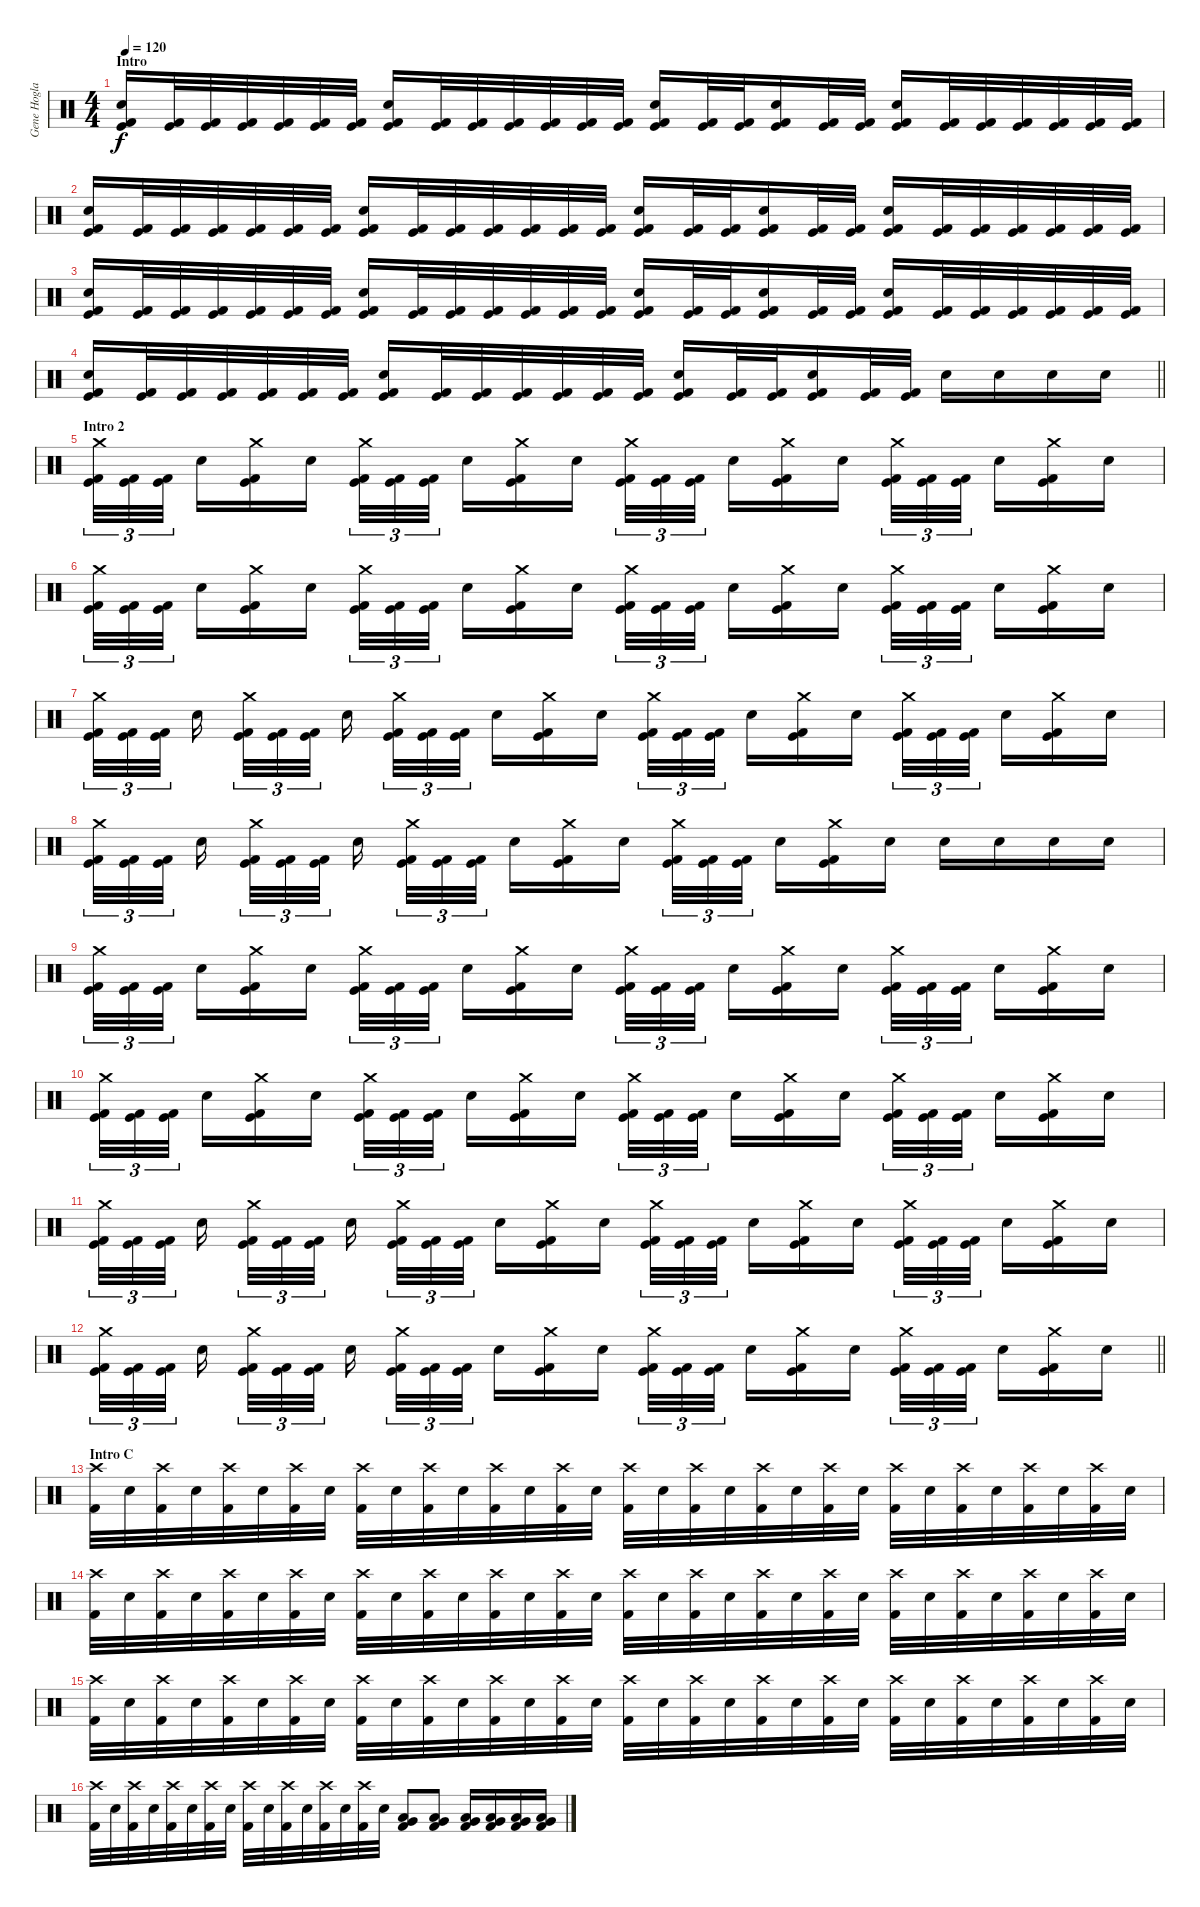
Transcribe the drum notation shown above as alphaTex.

\track ("Gene Hogland" "Gene Hogla") {instrument percussion}
\staff {score}
\articulation defaults
\ts (4 4)
\section ("" "Intro")
\tempo 120
\clef neutral
\ks c
("Electric Snare (hit)" "Kick (hit)" "Kick (hit) 2").16{dy f} ("Kick (hit)" "Kick (hit) 2").32 ("Kick (hit)" "Kick (hit) 2").32 ("Kick (hit)" "Kick (hit) 2").32 ("Kick (hit)" "Kick (hit) 2").32 ("Kick (hit)" "Kick (hit) 2").32 ("Kick (hit)" "Kick (hit) 2").32 ("Electric Snare (hit)" "Kick (hit)" "Kick (hit) 2").16 ("Kick (hit)" "Kick (hit) 2").32 ("Kick (hit)" "Kick (hit) 2").32 ("Kick (hit)" "Kick (hit) 2").32 ("Kick (hit)" "Kick (hit) 2").32 ("Kick (hit)" "Kick (hit) 2").32 ("Kick (hit)" "Kick (hit) 2").32 ("Electric Snare (hit)" "Kick (hit)" "Kick (hit) 2").16 ("Kick (hit)" "Kick (hit) 2").32 ("Kick (hit)" "Kick (hit) 2").32 ("Electric Snare (hit)" "Kick (hit)" "Kick (hit) 2").16 ("Kick (hit)" "Kick (hit) 2").32 ("Kick (hit)" "Kick (hit) 2").32 ("Electric Snare (hit)" "Kick (hit)" "Kick (hit) 2").16 ("Kick (hit)" "Kick (hit) 2").32 ("Kick (hit)" "Kick (hit) 2").32 ("Kick (hit)" "Kick (hit) 2").32 ("Kick (hit)" "Kick (hit) 2").32 ("Kick (hit)" "Kick (hit) 2").32 ("Kick (hit)" "Kick (hit) 2").32 |
("Electric Snare (hit)" "Kick (hit)" "Kick (hit) 2").16 ("Kick (hit)" "Kick (hit) 2").32 ("Kick (hit)" "Kick (hit) 2").32 ("Kick (hit)" "Kick (hit) 2").32 ("Kick (hit)" "Kick (hit) 2").32 ("Kick (hit)" "Kick (hit) 2").32 ("Kick (hit)" "Kick (hit) 2").32 ("Electric Snare (hit)" "Kick (hit)" "Kick (hit) 2").16 ("Kick (hit)" "Kick (hit) 2").32 ("Kick (hit)" "Kick (hit) 2").32 ("Kick (hit)" "Kick (hit) 2").32 ("Kick (hit)" "Kick (hit) 2").32 ("Kick (hit)" "Kick (hit) 2").32 ("Kick (hit)" "Kick (hit) 2").32 ("Electric Snare (hit)" "Kick (hit)" "Kick (hit) 2").16 ("Kick (hit)" "Kick (hit) 2").32 ("Kick (hit)" "Kick (hit) 2").32 ("Electric Snare (hit)" "Kick (hit)" "Kick (hit) 2").16 ("Kick (hit)" "Kick (hit) 2").32 ("Kick (hit)" "Kick (hit) 2").32 ("Electric Snare (hit)" "Kick (hit)" "Kick (hit) 2").16 ("Kick (hit)" "Kick (hit) 2").32 ("Kick (hit)" "Kick (hit) 2").32 ("Kick (hit)" "Kick (hit) 2").32 ("Kick (hit)" "Kick (hit) 2").32 ("Kick (hit)" "Kick (hit) 2").32 ("Kick (hit)" "Kick (hit) 2").32 |
("Electric Snare (hit)" "Kick (hit)" "Kick (hit) 2").16 ("Kick (hit)" "Kick (hit) 2").32 ("Kick (hit)" "Kick (hit) 2").32 ("Kick (hit)" "Kick (hit) 2").32 ("Kick (hit)" "Kick (hit) 2").32 ("Kick (hit)" "Kick (hit) 2").32 ("Kick (hit)" "Kick (hit) 2").32 ("Electric Snare (hit)" "Kick (hit)" "Kick (hit) 2").16 ("Kick (hit)" "Kick (hit) 2").32 ("Kick (hit)" "Kick (hit) 2").32 ("Kick (hit)" "Kick (hit) 2").32 ("Kick (hit)" "Kick (hit) 2").32 ("Kick (hit)" "Kick (hit) 2").32 ("Kick (hit)" "Kick (hit) 2").32 ("Electric Snare (hit)" "Kick (hit)" "Kick (hit) 2").16 ("Kick (hit)" "Kick (hit) 2").32 ("Kick (hit)" "Kick (hit) 2").32 ("Electric Snare (hit)" "Kick (hit)" "Kick (hit) 2").16 ("Kick (hit)" "Kick (hit) 2").32 ("Kick (hit)" "Kick (hit) 2").32 ("Electric Snare (hit)" "Kick (hit)" "Kick (hit) 2").16 ("Kick (hit)" "Kick (hit) 2").32 ("Kick (hit)" "Kick (hit) 2").32 ("Kick (hit)" "Kick (hit) 2").32 ("Kick (hit)" "Kick (hit) 2").32 ("Kick (hit)" "Kick (hit) 2").32 ("Kick (hit)" "Kick (hit) 2").32 |
\barLineRight lightlight
("Electric Snare (hit)" "Kick (hit)" "Kick (hit) 2").16 ("Kick (hit)" "Kick (hit) 2").32 ("Kick (hit)" "Kick (hit) 2").32 ("Kick (hit)" "Kick (hit) 2").32 ("Kick (hit)" "Kick (hit) 2").32 ("Kick (hit)" "Kick (hit) 2").32 ("Kick (hit)" "Kick (hit) 2").32 ("Electric Snare (hit)" "Kick (hit)" "Kick (hit) 2").16 ("Kick (hit)" "Kick (hit) 2").32 ("Kick (hit)" "Kick (hit) 2").32 ("Kick (hit)" "Kick (hit) 2").32 ("Kick (hit)" "Kick (hit) 2").32 ("Kick (hit)" "Kick (hit) 2").32 ("Kick (hit)" "Kick (hit) 2").32 ("Electric Snare (hit)" "Kick (hit)" "Kick (hit) 2").16 ("Kick (hit)" "Kick (hit) 2").32 ("Kick (hit)" "Kick (hit) 2").32 ("Electric Snare (hit)" "Kick (hit)" "Kick (hit) 2").16 ("Kick (hit)" "Kick (hit) 2").32 ("Kick (hit)" "Kick (hit) 2").32 "Electric Snare (hit)".16 "Electric Snare (hit)".16 "Electric Snare (hit)".16 "Electric Snare (hit)".16 |
\section ("" "Intro 2")
("Crash medium (hit)" "Kick (hit)" "Kick (hit) 2").32{tu (3 2)} ("Kick (hit)" "Kick (hit) 2").32{tu (3 2)} ("Kick (hit)" "Kick (hit) 2").32{tu (3 2)} "Electric Snare (hit)".16 ("Crash medium (hit)" "Kick (hit)" "Kick (hit) 2").16 "Electric Snare (hit)".16 ("Crash medium (hit)" "Kick (hit)" "Kick (hit) 2").32{tu (3 2)} ("Kick (hit)" "Kick (hit) 2").32{tu (3 2)} ("Kick (hit)" "Kick (hit) 2").32{tu (3 2)} "Electric Snare (hit)".16 ("Crash medium (hit)" "Kick (hit)" "Kick (hit) 2").16 "Electric Snare (hit)".16 ("Crash medium (hit)" "Kick (hit)" "Kick (hit) 2").32{tu (3 2)} ("Kick (hit)" "Kick (hit) 2").32{tu (3 2)} ("Kick (hit)" "Kick (hit) 2").32{tu (3 2)} "Electric Snare (hit)".16 ("Crash medium (hit)" "Kick (hit)" "Kick (hit) 2").16 "Electric Snare (hit)".16 ("Crash medium (hit)" "Kick (hit)" "Kick (hit) 2").32{tu (3 2)} ("Kick (hit)" "Kick (hit) 2").32{tu (3 2)} ("Kick (hit)" "Kick (hit) 2").32{tu (3 2)} "Electric Snare (hit)".16 ("Crash medium (hit)" "Kick (hit)" "Kick (hit) 2").16 "Electric Snare (hit)".16 |
("Crash medium (hit)" "Kick (hit)" "Kick (hit) 2").32{tu (3 2)} ("Kick (hit)" "Kick (hit) 2").32{tu (3 2)} ("Kick (hit)" "Kick (hit) 2").32{tu (3 2)} "Electric Snare (hit)".16 ("Crash medium (hit)" "Kick (hit)" "Kick (hit) 2").16 "Electric Snare (hit)".16 ("Crash medium (hit)" "Kick (hit)" "Kick (hit) 2").32{tu (3 2)} ("Kick (hit)" "Kick (hit) 2").32{tu (3 2)} ("Kick (hit)" "Kick (hit) 2").32{tu (3 2)} "Electric Snare (hit)".16 ("Crash medium (hit)" "Kick (hit)" "Kick (hit) 2").16 "Electric Snare (hit)".16 ("Crash medium (hit)" "Kick (hit)" "Kick (hit) 2").32{tu (3 2)} ("Kick (hit)" "Kick (hit) 2").32{tu (3 2)} ("Kick (hit)" "Kick (hit) 2").32{tu (3 2)} "Electric Snare (hit)".16 ("Crash medium (hit)" "Kick (hit)" "Kick (hit) 2").16 "Electric Snare (hit)".16 ("Crash medium (hit)" "Kick (hit)" "Kick (hit) 2").32{tu (3 2)} ("Kick (hit)" "Kick (hit) 2").32{tu (3 2)} ("Kick (hit)" "Kick (hit) 2").32{tu (3 2)} "Electric Snare (hit)".16 ("Crash medium (hit)" "Kick (hit)" "Kick (hit) 2").16 "Electric Snare (hit)".16 |
("Crash medium (hit)" "Kick (hit)" "Kick (hit) 2").32{tu (3 2)} ("Kick (hit)" "Kick (hit) 2").32{tu (3 2)} ("Kick (hit)" "Kick (hit) 2").32{tu (3 2)} "Electric Snare (hit)".16 ("Crash medium (hit)" "Kick (hit)" "Kick (hit) 2").32{tu (3 2)} ("Kick (hit)" "Kick (hit) 2").32{tu (3 2)} ("Kick (hit)" "Kick (hit) 2").32{tu (3 2)} "Electric Snare (hit)".16 ("Crash medium (hit)" "Kick (hit)" "Kick (hit) 2").32{tu (3 2)} ("Kick (hit)" "Kick (hit) 2").32{tu (3 2)} ("Kick (hit)" "Kick (hit) 2").32{tu (3 2)} "Electric Snare (hit)".16 ("Crash medium (hit)" "Kick (hit)" "Kick (hit) 2").16 "Electric Snare (hit)".16 ("Crash medium (hit)" "Kick (hit)" "Kick (hit) 2").32{tu (3 2)} ("Kick (hit)" "Kick (hit) 2").32{tu (3 2)} ("Kick (hit)" "Kick (hit) 2").32{tu (3 2)} "Electric Snare (hit)".16 ("Crash medium (hit)" "Kick (hit)" "Kick (hit) 2").16 "Electric Snare (hit)".16 ("Crash medium (hit)" "Kick (hit)" "Kick (hit) 2").32{tu (3 2)} ("Kick (hit)" "Kick (hit) 2").32{tu (3 2)} ("Kick (hit)" "Kick (hit) 2").32{tu (3 2)} "Electric Snare (hit)".16 ("Crash medium (hit)" "Kick (hit)" "Kick (hit) 2").16 "Electric Snare (hit)".16 |
("Crash medium (hit)" "Kick (hit)" "Kick (hit) 2").32{tu (3 2)} ("Kick (hit)" "Kick (hit) 2").32{tu (3 2)} ("Kick (hit)" "Kick (hit) 2").32{tu (3 2)} "Electric Snare (hit)".16 ("Crash medium (hit)" "Kick (hit)" "Kick (hit) 2").32{tu (3 2)} ("Kick (hit)" "Kick (hit) 2").32{tu (3 2)} ("Kick (hit)" "Kick (hit) 2").32{tu (3 2)} "Electric Snare (hit)".16 ("Crash medium (hit)" "Kick (hit)" "Kick (hit) 2").32{tu (3 2)} ("Kick (hit)" "Kick (hit) 2").32{tu (3 2)} ("Kick (hit)" "Kick (hit) 2").32{tu (3 2)} "Electric Snare (hit)".16 ("Crash medium (hit)" "Kick (hit)" "Kick (hit) 2").16 "Electric Snare (hit)".16 ("Crash medium (hit)" "Kick (hit)" "Kick (hit) 2").32{tu (3 2)} ("Kick (hit)" "Kick (hit) 2").32{tu (3 2)} ("Kick (hit)" "Kick (hit) 2").32{tu (3 2)} "Electric Snare (hit)".16 ("Crash medium (hit)" "Kick (hit)" "Kick (hit) 2").16 "Electric Snare (hit)".16 "Electric Snare (hit)".16 "Electric Snare (hit)".16 "Electric Snare (hit)".16 "Electric Snare (hit)".16 |
("Crash medium (hit)" "Kick (hit)" "Kick (hit) 2").32{tu (3 2)} ("Kick (hit)" "Kick (hit) 2").32{tu (3 2)} ("Kick (hit)" "Kick (hit) 2").32{tu (3 2)} "Electric Snare (hit)".16 ("Crash medium (hit)" "Kick (hit)" "Kick (hit) 2").16 "Electric Snare (hit)".16 ("Crash medium (hit)" "Kick (hit)" "Kick (hit) 2").32{tu (3 2)} ("Kick (hit)" "Kick (hit) 2").32{tu (3 2)} ("Kick (hit)" "Kick (hit) 2").32{tu (3 2)} "Electric Snare (hit)".16 ("Crash medium (hit)" "Kick (hit)" "Kick (hit) 2").16 "Electric Snare (hit)".16 ("Crash medium (hit)" "Kick (hit)" "Kick (hit) 2").32{tu (3 2)} ("Kick (hit)" "Kick (hit) 2").32{tu (3 2)} ("Kick (hit)" "Kick (hit) 2").32{tu (3 2)} "Electric Snare (hit)".16 ("Crash medium (hit)" "Kick (hit)" "Kick (hit) 2").16 "Electric Snare (hit)".16 ("Crash medium (hit)" "Kick (hit)" "Kick (hit) 2").32{tu (3 2)} ("Kick (hit)" "Kick (hit) 2").32{tu (3 2)} ("Kick (hit)" "Kick (hit) 2").32{tu (3 2)} "Electric Snare (hit)".16 ("Crash medium (hit)" "Kick (hit)" "Kick (hit) 2").16 "Electric Snare (hit)".16 |
("Crash medium (hit)" "Kick (hit)" "Kick (hit) 2").32{tu (3 2)} ("Kick (hit)" "Kick (hit) 2").32{tu (3 2)} ("Kick (hit)" "Kick (hit) 2").32{tu (3 2)} "Electric Snare (hit)".16 ("Crash medium (hit)" "Kick (hit)" "Kick (hit) 2").16 "Electric Snare (hit)".16 ("Crash medium (hit)" "Kick (hit)" "Kick (hit) 2").32{tu (3 2)} ("Kick (hit)" "Kick (hit) 2").32{tu (3 2)} ("Kick (hit)" "Kick (hit) 2").32{tu (3 2)} "Electric Snare (hit)".16 ("Crash medium (hit)" "Kick (hit)" "Kick (hit) 2").16 "Electric Snare (hit)".16 ("Crash medium (hit)" "Kick (hit)" "Kick (hit) 2").32{tu (3 2)} ("Kick (hit)" "Kick (hit) 2").32{tu (3 2)} ("Kick (hit)" "Kick (hit) 2").32{tu (3 2)} "Electric Snare (hit)".16 ("Crash medium (hit)" "Kick (hit)" "Kick (hit) 2").16 "Electric Snare (hit)".16 ("Crash medium (hit)" "Kick (hit)" "Kick (hit) 2").32{tu (3 2)} ("Kick (hit)" "Kick (hit) 2").32{tu (3 2)} ("Kick (hit)" "Kick (hit) 2").32{tu (3 2)} "Electric Snare (hit)".16 ("Crash medium (hit)" "Kick (hit)" "Kick (hit) 2").16 "Electric Snare (hit)".16 |
("Crash medium (hit)" "Kick (hit)" "Kick (hit) 2").32{tu (3 2)} ("Kick (hit)" "Kick (hit) 2").32{tu (3 2)} ("Kick (hit)" "Kick (hit) 2").32{tu (3 2)} "Electric Snare (hit)".16 ("Crash medium (hit)" "Kick (hit)" "Kick (hit) 2").32{tu (3 2)} ("Kick (hit)" "Kick (hit) 2").32{tu (3 2)} ("Kick (hit)" "Kick (hit) 2").32{tu (3 2)} "Electric Snare (hit)".16 ("Crash medium (hit)" "Kick (hit)" "Kick (hit) 2").32{tu (3 2)} ("Kick (hit)" "Kick (hit) 2").32{tu (3 2)} ("Kick (hit)" "Kick (hit) 2").32{tu (3 2)} "Electric Snare (hit)".16 ("Crash medium (hit)" "Kick (hit)" "Kick (hit) 2").16 "Electric Snare (hit)".16 ("Crash medium (hit)" "Kick (hit)" "Kick (hit) 2").32{tu (3 2)} ("Kick (hit)" "Kick (hit) 2").32{tu (3 2)} ("Kick (hit)" "Kick (hit) 2").32{tu (3 2)} "Electric Snare (hit)".16 ("Crash medium (hit)" "Kick (hit)" "Kick (hit) 2").16 "Electric Snare (hit)".16 ("Crash medium (hit)" "Kick (hit)" "Kick (hit) 2").32{tu (3 2)} ("Kick (hit)" "Kick (hit) 2").32{tu (3 2)} ("Kick (hit)" "Kick (hit) 2").32{tu (3 2)} "Electric Snare (hit)".16 ("Crash medium (hit)" "Kick (hit)" "Kick (hit) 2").16 "Electric Snare (hit)".16 |
\barLineRight lightlight
("Crash medium (hit)" "Kick (hit)" "Kick (hit) 2").32{tu (3 2)} ("Kick (hit)" "Kick (hit) 2").32{tu (3 2)} ("Kick (hit)" "Kick (hit) 2").32{tu (3 2)} "Electric Snare (hit)".16 ("Crash medium (hit)" "Kick (hit)" "Kick (hit) 2").32{tu (3 2)} ("Kick (hit)" "Kick (hit) 2").32{tu (3 2)} ("Kick (hit)" "Kick (hit) 2").32{tu (3 2)} "Electric Snare (hit)".16 ("Crash medium (hit)" "Kick (hit)" "Kick (hit) 2").32{tu (3 2)} ("Kick (hit)" "Kick (hit) 2").32{tu (3 2)} ("Kick (hit)" "Kick (hit) 2").32{tu (3 2)} "Electric Snare (hit)".16 ("Crash medium (hit)" "Kick (hit)" "Kick (hit) 2").16 "Electric Snare (hit)".16 ("Crash medium (hit)" "Kick (hit)" "Kick (hit) 2").32{tu (3 2)} ("Kick (hit)" "Kick (hit) 2").32{tu (3 2)} ("Kick (hit)" "Kick (hit) 2").32{tu (3 2)} "Electric Snare (hit)".16 ("Crash medium (hit)" "Kick (hit)" "Kick (hit) 2").16 "Electric Snare (hit)".16 ("Crash medium (hit)" "Kick (hit)" "Kick (hit) 2").32{tu (3 2)} ("Kick (hit)" "Kick (hit) 2").32{tu (3 2)} ("Kick (hit)" "Kick (hit) 2").32{tu (3 2)} "Electric Snare (hit)".16 ("Crash medium (hit)" "Kick (hit)" "Kick (hit) 2").16 "Electric Snare (hit)".16 |
\section ("" "Intro C")
("Crash high (hit)" "Kick (hit) 2").32 "Electric Snare (hit)".32 ("Crash high (hit)" "Kick (hit) 2").32 "Electric Snare (hit)".32 ("Crash high (hit)" "Kick (hit) 2").32 "Electric Snare (hit)".32 ("Crash high (hit)" "Kick (hit) 2").32 "Electric Snare (hit)".32 ("Crash high (hit)" "Kick (hit) 2").32 "Electric Snare (hit)".32 ("Crash high (hit)" "Kick (hit) 2").32 "Electric Snare (hit)".32 ("Crash high (hit)" "Kick (hit) 2").32 "Electric Snare (hit)".32 ("Crash high (hit)" "Kick (hit) 2").32 "Electric Snare (hit)".32 ("Crash high (hit)" "Kick (hit) 2").32 "Electric Snare (hit)".32 ("Crash high (hit)" "Kick (hit) 2").32 "Electric Snare (hit)".32 ("Crash high (hit)" "Kick (hit) 2").32 "Electric Snare (hit)".32 ("Crash high (hit)" "Kick (hit) 2").32 "Electric Snare (hit)".32 ("Crash high (hit)" "Kick (hit) 2").32 "Electric Snare (hit)".32 ("Crash high (hit)" "Kick (hit) 2").32 "Electric Snare (hit)".32 ("Crash high (hit)" "Kick (hit) 2").32 "Electric Snare (hit)".32 ("Crash high (hit)" "Kick (hit) 2").32 "Electric Snare (hit)".32 |
("Crash high (hit)" "Kick (hit) 2").32 "Electric Snare (hit)".32 ("Crash high (hit)" "Kick (hit) 2").32 "Electric Snare (hit)".32 ("Crash high (hit)" "Kick (hit) 2").32 "Electric Snare (hit)".32 ("Crash high (hit)" "Kick (hit) 2").32 "Electric Snare (hit)".32 ("Crash high (hit)" "Kick (hit) 2").32 "Electric Snare (hit)".32 ("Crash high (hit)" "Kick (hit) 2").32 "Electric Snare (hit)".32 ("Crash high (hit)" "Kick (hit) 2").32 "Electric Snare (hit)".32 ("Crash high (hit)" "Kick (hit) 2").32 "Electric Snare (hit)".32 ("Crash high (hit)" "Kick (hit) 2").32 "Electric Snare (hit)".32 ("Crash high (hit)" "Kick (hit) 2").32 "Electric Snare (hit)".32 ("Crash high (hit)" "Kick (hit) 2").32 "Electric Snare (hit)".32 ("Crash high (hit)" "Kick (hit) 2").32 "Electric Snare (hit)".32 ("Crash high (hit)" "Kick (hit) 2").32 "Electric Snare (hit)".32 ("Crash high (hit)" "Kick (hit) 2").32 "Electric Snare (hit)".32 ("Crash high (hit)" "Kick (hit) 2").32 "Electric Snare (hit)".32 ("Crash high (hit)" "Kick (hit) 2").32 "Electric Snare (hit)".32 |
("Crash high (hit)" "Kick (hit) 2").32 "Electric Snare (hit)".32 ("Crash high (hit)" "Kick (hit) 2").32 "Electric Snare (hit)".32 ("Crash high (hit)" "Kick (hit) 2").32 "Electric Snare (hit)".32 ("Crash high (hit)" "Kick (hit) 2").32 "Electric Snare (hit)".32 ("Crash high (hit)" "Kick (hit) 2").32 "Electric Snare (hit)".32 ("Crash high (hit)" "Kick (hit) 2").32 "Electric Snare (hit)".32 ("Crash high (hit)" "Kick (hit) 2").32 "Electric Snare (hit)".32 ("Crash high (hit)" "Kick (hit) 2").32 "Electric Snare (hit)".32 ("Crash high (hit)" "Kick (hit) 2").32 "Electric Snare (hit)".32 ("Crash high (hit)" "Kick (hit) 2").32 "Electric Snare (hit)".32 ("Crash high (hit)" "Kick (hit) 2").32 "Electric Snare (hit)".32 ("Crash high (hit)" "Kick (hit) 2").32 "Electric Snare (hit)".32 ("Crash high (hit)" "Kick (hit) 2").32 "Electric Snare (hit)".32 ("Crash high (hit)" "Kick (hit) 2").32 "Electric Snare (hit)".32 ("Crash high (hit)" "Kick (hit) 2").32 "Electric Snare (hit)".32 ("Crash high (hit)" "Kick (hit) 2").32 "Electric Snare (hit)".32 |
("Crash high (hit)" "Kick (hit) 2").32 "Electric Snare (hit)".32 ("Crash high (hit)" "Kick (hit) 2").32 "Electric Snare (hit)".32 ("Crash high (hit)" "Kick (hit) 2").32 "Electric Snare (hit)".32 ("Crash high (hit)" "Kick (hit) 2").32 "Electric Snare (hit)".32 ("Crash high (hit)" "Kick (hit) 2").32 "Electric Snare (hit)".32 ("Crash high (hit)" "Kick (hit) 2").32 "Electric Snare (hit)".32 ("Crash high (hit)" "Kick (hit) 2").32 "Electric Snare (hit)".32 ("Crash high (hit)" "Kick (hit) 2").32 "Electric Snare (hit)".32 ("Very Low Tom (hit)" "Low Floor Tom (hit)" "Kick (hit) 2").8 ("Very Low Tom (hit)" "Low Floor Tom (hit)" "Kick (hit) 2").8 ("Very Low Tom (hit)" "Low Floor Tom (hit)" "Kick (hit) 2").16 ("Very Low Tom (hit)" "Low Floor Tom (hit)" "Kick (hit) 2").16 ("Very Low Tom (hit)" "Low Floor Tom (hit)" "Kick (hit) 2").16 ("Very Low Tom (hit)" "Low Floor Tom (hit)" "Kick (hit) 2").16
